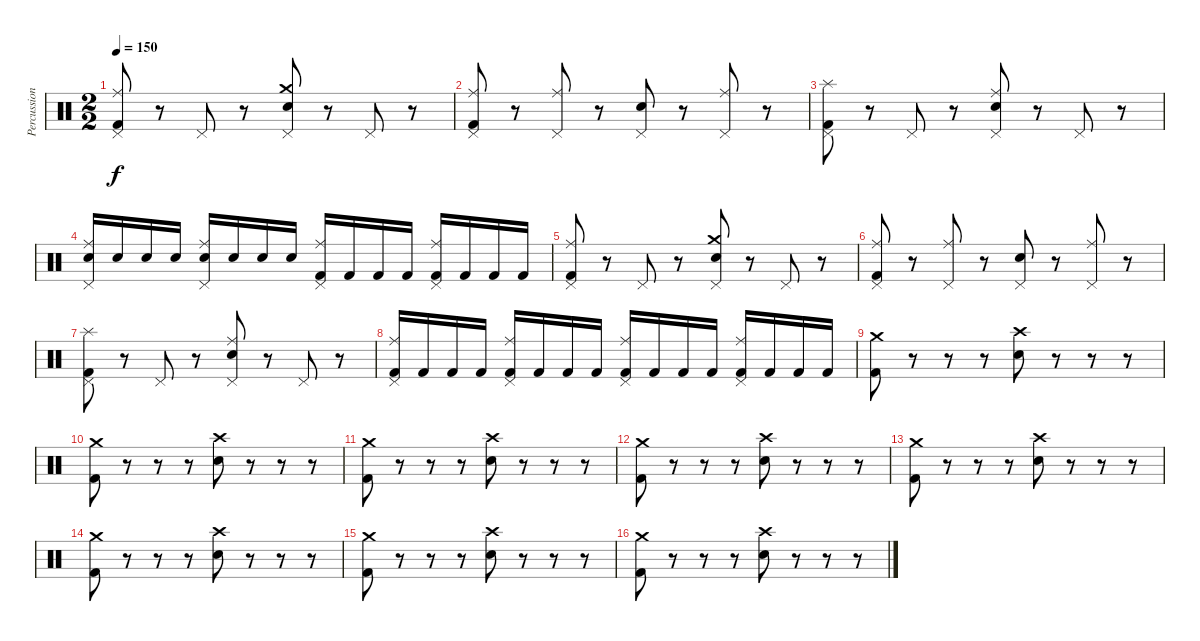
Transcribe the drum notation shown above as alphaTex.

\track ("Percussion" "Percussion") {instrument percussion}
\staff {score}
\articulation defaults
\ts (2 2)
\tempo 150
\clef neutral
\ks c
("Pedal Hi-Hat (hit)" "Ride (middle)" "Kick (hit) 2").8{dy f} r.8 "Pedal Hi-Hat (hit)".8 r.8 ("Pedal Hi-Hat (hit)" "Crash medium (hit)" "Snare (hit) 2").8 r.8 "Pedal Hi-Hat (hit)".8 r.8 |
("Pedal Hi-Hat (hit)" "Ride (middle)" "Kick (hit) 2").8 r.8 ("Pedal Hi-Hat (hit)" "Ride (middle)").8 r.8 ("Pedal Hi-Hat (hit)" "Snare (hit) 2").8 r.8 ("Pedal Hi-Hat (hit)" "Ride (middle)").8 r.8 |
("Pedal Hi-Hat (hit)" "Splash (hit)" "Kick (hit) 2").8 r.8 "Pedal Hi-Hat (hit)".8 r.8 ("Pedal Hi-Hat (hit)" "Ride (middle)" "Snare (hit) 2").8 r.8 "Pedal Hi-Hat (hit)".8 r.8 |
("Pedal Hi-Hat (hit)" "Ride (middle)" "Snare (hit) 2").16 "Snare (hit) 2".16 "Snare (hit) 2".16 "Snare (hit) 2".16 ("Pedal Hi-Hat (hit)" "Ride (middle)" "Snare (hit) 2").16 "Snare (hit) 2".16 "Snare (hit) 2".16 "Snare (hit) 2".16 ("Pedal Hi-Hat (hit)" "Ride (middle)" "Kick (hit) 2").16 "Kick (hit) 2".16 "Kick (hit) 2".16 "Kick (hit) 2".16 ("Pedal Hi-Hat (hit)" "Ride (middle)" "Kick (hit) 2").16 "Kick (hit) 2".16 "Kick (hit) 2".16 "Kick (hit) 2".16 |
("Pedal Hi-Hat (hit)" "Ride (middle)" "Kick (hit) 2").8 r.8 "Pedal Hi-Hat (hit)".8 r.8 ("Pedal Hi-Hat (hit)" "Crash medium (hit)" "Snare (hit) 2").8 r.8 "Pedal Hi-Hat (hit)".8 r.8 |
("Pedal Hi-Hat (hit)" "Ride (middle)" "Kick (hit) 2").8 r.8 ("Pedal Hi-Hat (hit)" "Ride (middle)").8 r.8 ("Pedal Hi-Hat (hit)" "Snare (hit) 2").8 r.8 ("Pedal Hi-Hat (hit)" "Ride (middle)").8 r.8 |
("Pedal Hi-Hat (hit)" "Splash (hit)" "Kick (hit) 2").8 r.8 "Pedal Hi-Hat (hit)".8 r.8 ("Pedal Hi-Hat (hit)" "Ride (middle)" "Snare (hit) 2").8 r.8 "Pedal Hi-Hat (hit)".8 r.8 |
("Pedal Hi-Hat (hit)" "Ride (middle)" "Kick (hit) 2").16 "Kick (hit) 2".16 "Kick (hit) 2".16 "Kick (hit) 2".16 ("Pedal Hi-Hat (hit)" "Ride (middle)" "Kick (hit) 2").16 "Kick (hit) 2".16 "Kick (hit) 2".16 "Kick (hit) 2".16 ("Pedal Hi-Hat (hit)" "Ride (middle)" "Kick (hit) 2").16 "Kick (hit) 2".16 "Kick (hit) 2".16 "Kick (hit) 2".16 ("Pedal Hi-Hat (hit)" "Ride (middle)" "Kick (hit) 2").16 "Kick (hit) 2".16 "Kick (hit) 2".16 "Kick (hit) 2".16 |
("Crash medium (hit)" "Kick (hit) 2").8 r.8 r.8 r.8 ("Crash high (hit)" "Snare (hit) 2").8 r.8 r.8 r.8 |
("Crash medium (hit)" "Kick (hit) 2").8 r.8 r.8 r.8 ("Crash high (hit)" "Snare (hit) 2").8 r.8 r.8 r.8 |
("Crash medium (hit)" "Kick (hit) 2").8 r.8 r.8 r.8 ("Crash high (hit)" "Snare (hit) 2").8 r.8 r.8 r.8 |
("Crash medium (hit)" "Kick (hit) 2").8 r.8 r.8 r.8 ("Crash high (hit)" "Snare (hit) 2").8 r.8 r.8 r.8 |
("Crash medium (hit)" "Kick (hit) 2").8 r.8 r.8 r.8 ("Crash high (hit)" "Snare (hit) 2").8 r.8 r.8 r.8 |
("Crash medium (hit)" "Kick (hit) 2").8 r.8 r.8 r.8 ("Crash high (hit)" "Snare (hit) 2").8 r.8 r.8 r.8 |
("Crash medium (hit)" "Kick (hit) 2").8 r.8 r.8 r.8 ("Crash high (hit)" "Snare (hit) 2").8 r.8 r.8 r.8 |
("Crash medium (hit)" "Kick (hit) 2").8 r.8 r.8 r.8 ("Crash high (hit)" "Snare (hit) 2").8 r.8 r.8 r.8
